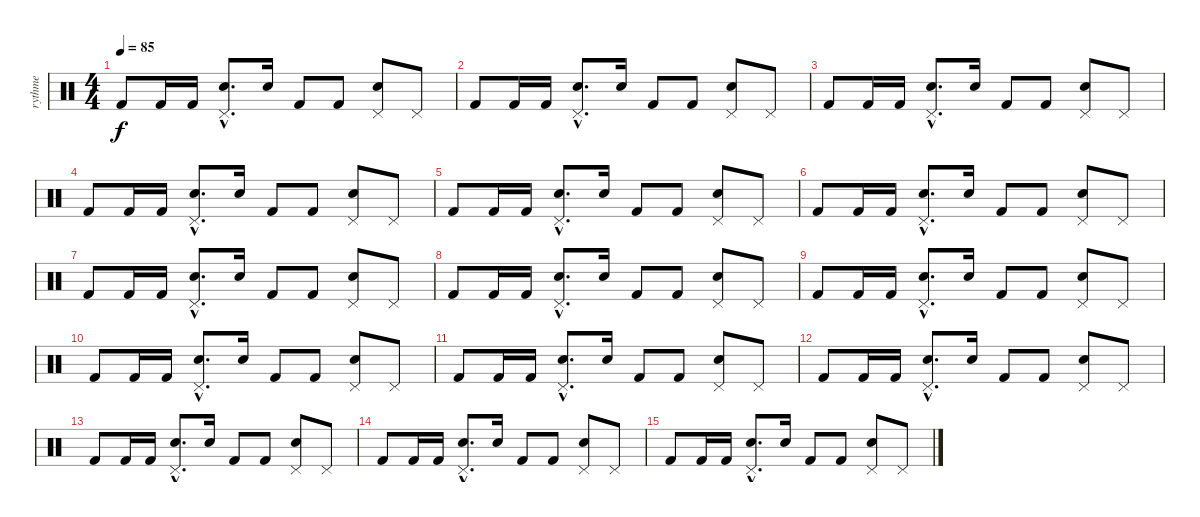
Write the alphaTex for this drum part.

\track ("rythme" "rythme") {instrument percussion}
\staff {score}
\articulation defaults
\ts (4 4)
\tempo 85
\clef neutral
\ks c "Kick (hit) 2".8{dy f} "Kick (hit) 2".16 "Kick (hit) 2".16
("Pedal Hi-Hat (hit)"{hac} "Electric Snare (hit)"{hac}).8{d} "Electric Snare (hit)".16 "Kick (hit) 2".8 "Kick (hit) 2".8 ("Pedal Hi-Hat (hit)" "Electric Snare (hit)").8 "Pedal Hi-Hat (hit)".8 |
"Kick (hit) 2".8 "Kick (hit) 2".16 "Kick (hit) 2".16 ("Pedal Hi-Hat (hit)"{hac} "Electric Snare (hit)"{hac}).8{d} "Electric Snare (hit)".16 "Kick (hit) 2".8 "Kick (hit) 2".8 ("Pedal Hi-Hat (hit)" "Electric Snare (hit)").8 "Pedal Hi-Hat (hit)".8 |
"Kick (hit) 2".8 "Kick (hit) 2".16 "Kick (hit) 2".16 ("Pedal Hi-Hat (hit)"{hac} "Electric Snare (hit)"{hac}).8{d} "Electric Snare (hit)".16 "Kick (hit) 2".8 "Kick (hit) 2".8 ("Pedal Hi-Hat (hit)" "Electric Snare (hit)").8 "Pedal Hi-Hat (hit)".8 |
"Kick (hit) 2".8 "Kick (hit) 2".16 "Kick (hit) 2".16 ("Pedal Hi-Hat (hit)"{hac} "Electric Snare (hit)"{hac}).8{d} "Electric Snare (hit)".16 "Kick (hit) 2".8 "Kick (hit) 2".8 ("Pedal Hi-Hat (hit)" "Electric Snare (hit)").8 "Pedal Hi-Hat (hit)".8 |
"Kick (hit) 2".8 "Kick (hit) 2".16 "Kick (hit) 2".16 ("Pedal Hi-Hat (hit)"{hac} "Electric Snare (hit)"{hac}).8{d} "Electric Snare (hit)".16 "Kick (hit) 2".8 "Kick (hit) 2".8 ("Pedal Hi-Hat (hit)" "Electric Snare (hit)").8 "Pedal Hi-Hat (hit)".8 |
"Kick (hit) 2".8 "Kick (hit) 2".16 "Kick (hit) 2".16 ("Pedal Hi-Hat (hit)"{hac} "Electric Snare (hit)"{hac}).8{d} "Electric Snare (hit)".16 "Kick (hit) 2".8 "Kick (hit) 2".8 ("Pedal Hi-Hat (hit)" "Electric Snare (hit)").8 "Pedal Hi-Hat (hit)".8 |
"Kick (hit) 2".8 "Kick (hit) 2".16 "Kick (hit) 2".16 ("Pedal Hi-Hat (hit)"{hac} "Electric Snare (hit)"{hac}).8{d} "Electric Snare (hit)".16 "Kick (hit) 2".8 "Kick (hit) 2".8 ("Pedal Hi-Hat (hit)" "Electric Snare (hit)").8 "Pedal Hi-Hat (hit)".8 |
"Kick (hit) 2".8 "Kick (hit) 2".16 "Kick (hit) 2".16 ("Pedal Hi-Hat (hit)"{hac} "Electric Snare (hit)"{hac}).8{d} "Electric Snare (hit)".16 "Kick (hit) 2".8 "Kick (hit) 2".8 ("Pedal Hi-Hat (hit)" "Electric Snare (hit)").8 "Pedal Hi-Hat (hit)".8 |
"Kick (hit) 2".8 "Kick (hit) 2".16 "Kick (hit) 2".16 ("Pedal Hi-Hat (hit)"{hac} "Electric Snare (hit)"{hac}).8{d} "Electric Snare (hit)".16 "Kick (hit) 2".8 "Kick (hit) 2".8 ("Pedal Hi-Hat (hit)" "Electric Snare (hit)").8 "Pedal Hi-Hat (hit)".8 |
"Kick (hit) 2".8 "Kick (hit) 2".16 "Kick (hit) 2".16 ("Pedal Hi-Hat (hit)"{hac} "Electric Snare (hit)"{hac}).8{d} "Electric Snare (hit)".16 "Kick (hit) 2".8 "Kick (hit) 2".8 ("Pedal Hi-Hat (hit)" "Electric Snare (hit)").8 "Pedal Hi-Hat (hit)".8 |
"Kick (hit) 2".8 "Kick (hit) 2".16 "Kick (hit) 2".16 ("Pedal Hi-Hat (hit)"{hac} "Electric Snare (hit)"{hac}).8{d} "Electric Snare (hit)".16 "Kick (hit) 2".8 "Kick (hit) 2".8 ("Pedal Hi-Hat (hit)" "Electric Snare (hit)").8 "Pedal Hi-Hat (hit)".8 |
"Kick (hit) 2".8 "Kick (hit) 2".16 "Kick (hit) 2".16 ("Pedal Hi-Hat (hit)"{hac} "Electric Snare (hit)"{hac}).8{d} "Electric Snare (hit)".16 "Kick (hit) 2".8 "Kick (hit) 2".8 ("Pedal Hi-Hat (hit)" "Electric Snare (hit)").8 "Pedal Hi-Hat (hit)".8 |
"Kick (hit) 2".8 "Kick (hit) 2".16 "Kick (hit) 2".16 ("Pedal Hi-Hat (hit)"{hac} "Electric Snare (hit)"{hac}).8{d} "Electric Snare (hit)".16 "Kick (hit) 2".8 "Kick (hit) 2".8 ("Pedal Hi-Hat (hit)" "Electric Snare (hit)").8 "Pedal Hi-Hat (hit)".8 |
"Kick (hit) 2".8 "Kick (hit) 2".16 "Kick (hit) 2".16 ("Pedal Hi-Hat (hit)"{hac} "Electric Snare (hit)"{hac}).8{d} "Electric Snare (hit)".16 "Kick (hit) 2".8 "Kick (hit) 2".8 ("Pedal Hi-Hat (hit)" "Electric Snare (hit)").8 "Pedal Hi-Hat (hit)".8 |
"Kick (hit) 2".8 "Kick (hit) 2".16 "Kick (hit) 2".16 ("Pedal Hi-Hat (hit)"{hac} "Electric Snare (hit)"{hac}).8{d} "Electric Snare (hit)".16 "Kick (hit) 2".8 "Kick (hit) 2".8 ("Pedal Hi-Hat (hit)" "Electric Snare (hit)").8 "Pedal Hi-Hat (hit)".8
